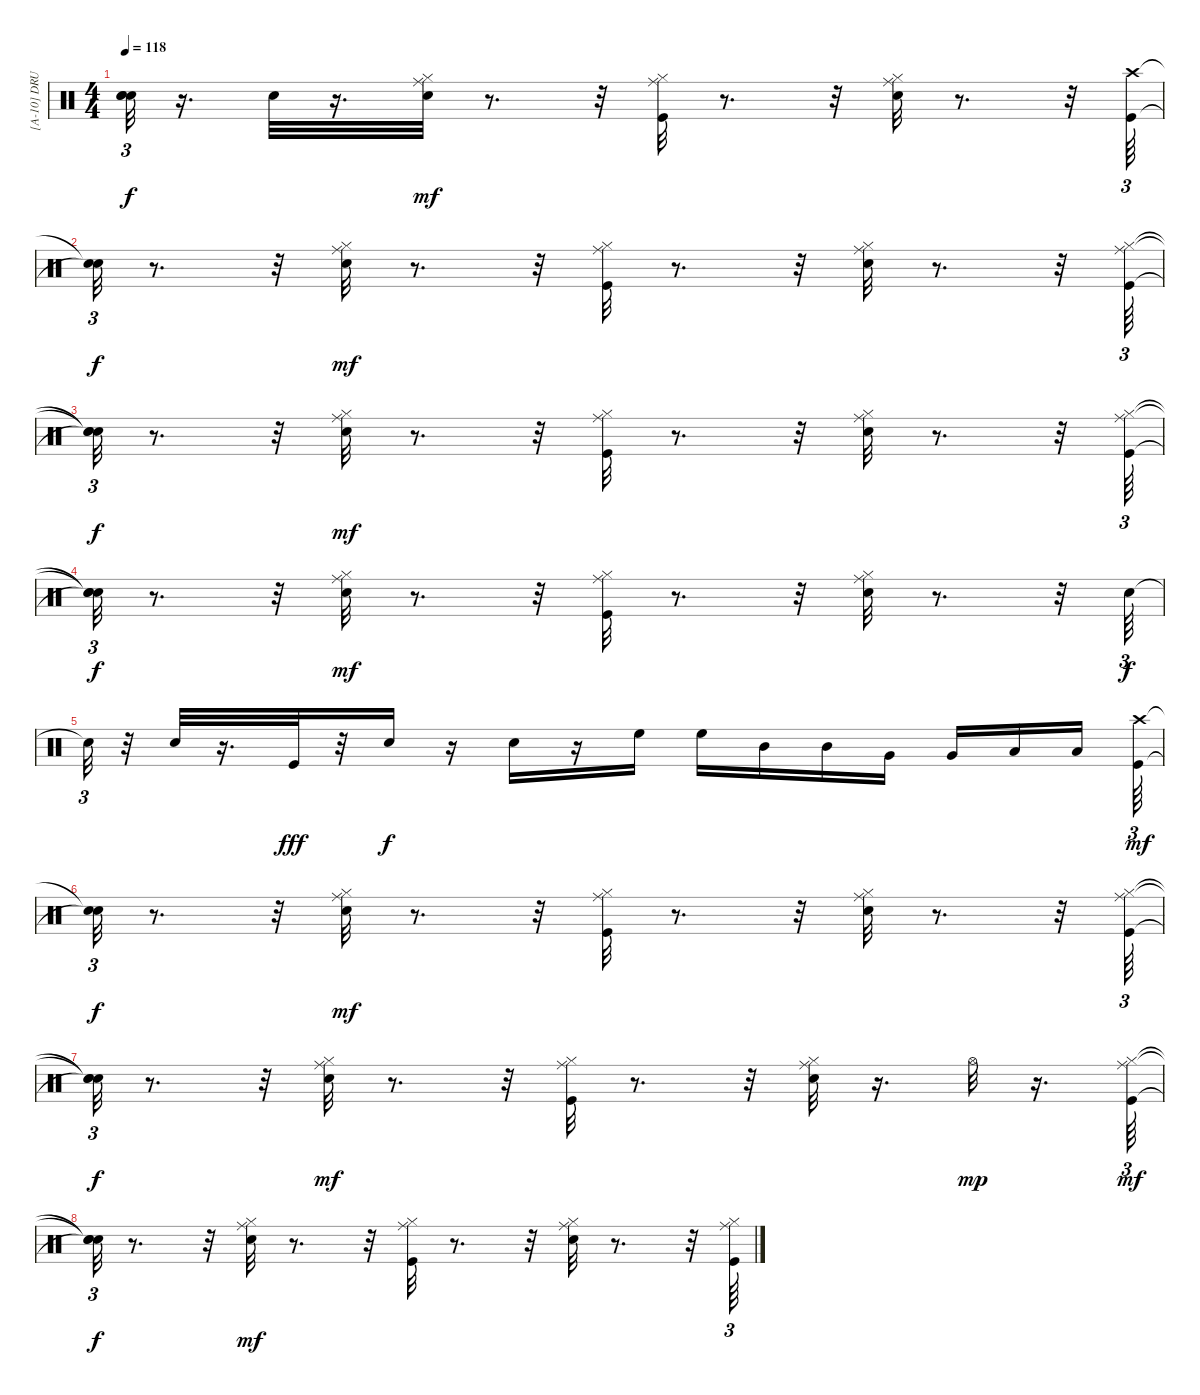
\track ("[A-10] DRUM" "[A-10] DRU") {instrument percussion}
\staff {score}
\articulation defaults
\ts (4 4)
\tempo 118
\clef neutral
\ks c
("Snare (hit)"{t} "Snare (hit)"{t} "Snare (hit)"{t}).32{tu (3 2) dy f} r.16{d} "Snare (hit) 2".32 r.16{d} ("Snare (hit) 2" "Hi-Hat (closed)" "Ride (middle)").32{dy mf} r.8{d} r.32 ("Kick (hit)" "Hi-Hat (closed)" "Ride (middle)").32 r.8{d} r.32 ("Snare (hit) 2" "Hi-Hat (closed)" "Ride (middle)").32 r.8{d} r.32 ("Kick (hit)" "Crash high (hit)").64{tu (3 2)} |
("Snare (hit)"{t} "Snare (hit)"{t}).32{tu (3 2) dy f} r.8{d} r.32 ("Snare (hit) 2" "Hi-Hat (closed)" "Ride (middle)").32{dy mf} r.8{d} r.32 ("Kick (hit)" "Hi-Hat (closed)" "Ride (middle)").32 r.8{d} r.32 ("Snare (hit) 2" "Hi-Hat (closed)" "Ride (middle)").32 r.8{d} r.32 ("Kick (hit)" "Hi-Hat (closed)" "Ride (middle)").64{tu (3 2)} |
("Snare (hit)"{t} "Snare (hit)"{t} "Snare (hit)"{t}).32{tu (3 2) dy f} r.8{d} r.32 ("Snare (hit) 2" "Hi-Hat (closed)" "Ride (middle)").32{dy mf} r.8{d} r.32 ("Kick (hit)" "Hi-Hat (closed)" "Ride (middle)").32 r.8{d} r.32 ("Snare (hit) 2" "Hi-Hat (closed)" "Ride (middle)").32 r.8{d} r.32 ("Kick (hit)" "Hi-Hat (closed)" "Ride (middle)").64{tu (3 2)} |
("Snare (hit)"{t} "Snare (hit)"{t} "Snare (hit)"{t}).32{tu (3 2) dy f} r.8{d} r.32 ("Snare (hit) 2" "Hi-Hat (closed)" "Ride (middle)").32{dy mf} r.8{d} r.32 ("Kick (hit)" "Hi-Hat (closed)" "Ride (middle)").32 r.8{d} r.32 ("Snare (hit) 2" "Hi-Hat (closed)" "Ride (middle)").32 r.8{d} r.32 "Snare (hit) 2".64{tu (3 2) dy f} |
"Snare (hit)"{t}.32{tu (3 2)} r.32 "Snare (hit) 2".32 r.16{d} "Kick (hit)".32{dy fff} r.32 "Snare (hit) 2".16{dy f} r.16 "Snare (hit) 2".16 r.16 "High Floor Tom (hit)".16 "High Floor Tom (hit)".16 "Mid Tom (hit)".16 "Mid Tom (hit)".16 "Very Low Tom (hit)".16 "Very Low Tom (hit)".16 "Low Floor Tom (hit)".16 "Low Floor Tom (hit)".16 ("Kick (hit)" "Crash high (hit)").64{tu (3 2) dy mf} |
("Snare (hit)"{t} "Snare (hit)"{t}).32{tu (3 2) dy f} r.8{d} r.32 ("Snare (hit) 2" "Hi-Hat (closed)" "Ride (middle)").32{dy mf} r.8{d} r.32 ("Kick (hit)" "Hi-Hat (closed)" "Ride (middle)").32 r.8{d} r.32 ("Snare (hit) 2" "Hi-Hat (closed)" "Ride (middle)").32 r.8{d} r.32 ("Kick (hit)" "Hi-Hat (closed)" "Ride (middle)").64{tu (3 2)} |
("Snare (hit)"{t} "Snare (hit)"{t} "Snare (hit)"{t}).32{tu (3 2) dy f} r.8{d} r.32 ("Snare (hit) 2" "Hi-Hat (closed)" "Ride (middle)").32{dy mf} r.8{d} r.32 ("Kick (hit)" "Hi-Hat (closed)" "Ride (middle)").32 r.8{d} r.32 ("Snare (hit) 2" "Hi-Hat (closed)" "Ride (middle)").32 r.16{d} "Hi-Hat (open)".32{dy mp} r.16{d} ("Kick (hit)" "Hi-Hat (closed)" "Ride (middle)").64{tu (3 2) dy mf} |
("Snare (hit)"{t} "Snare (hit)"{t} "Snare (hit)"{t}).32{tu (3 2) dy f} r.8{d} r.32 ("Snare (hit) 2" "Hi-Hat (closed)" "Ride (middle)").32{dy mf} r.8{d} r.32 ("Kick (hit)" "Hi-Hat (closed)" "Ride (middle)").32 r.8{d} r.32 ("Snare (hit) 2" "Hi-Hat (closed)" "Ride (middle)").32 r.8{d} r.32 ("Kick (hit)" "Hi-Hat (closed)" "Ride (middle)").64{tu (3 2)}
